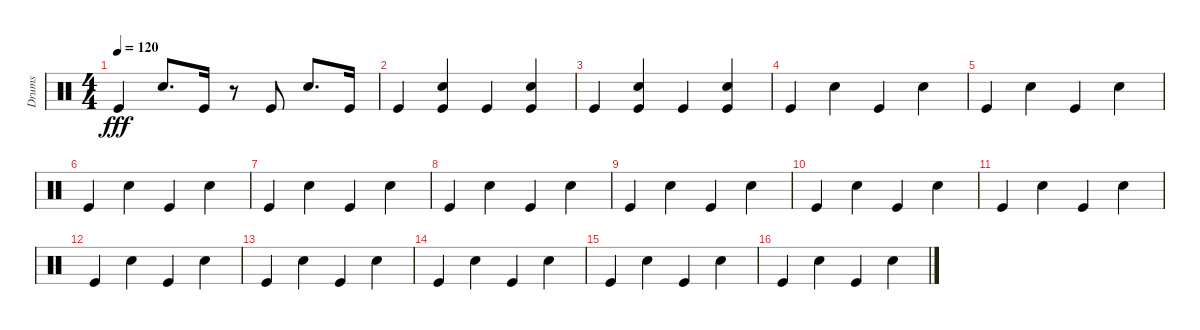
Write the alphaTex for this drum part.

\track ("Drums" "Drums") {instrument percussion}
\staff {score}
\articulation defaults
\ts (4 4)
\tempo 120
\clef neutral
\ks c "Kick (hit)".4{dy fff} "Snare (hit) 2".8{d} "Kick (hit)".16
r.8 "Kick (hit)".8 "Snare (hit) 2".8{d} "Kick (hit)".16 |
"Kick (hit)".4 ("Snare (hit) 2" "Kick (hit)").4 "Kick (hit)".4 ("Snare (hit) 2" "Kick (hit)").4 |
"Kick (hit)".4 ("Snare (hit) 2" "Kick (hit)").4 "Kick (hit)".4 ("Snare (hit) 2" "Kick (hit)").4 |
"Kick (hit)".4 "Snare (hit) 2".4 "Kick (hit)".4 "Snare (hit) 2".4 |
"Kick (hit)".4 "Snare (hit) 2".4 "Kick (hit)".4 "Snare (hit) 2".4 |
"Kick (hit)".4 "Snare (hit) 2".4 "Kick (hit)".4 "Snare (hit) 2".4 |
"Kick (hit)".4 "Snare (hit) 2".4 "Kick (hit)".4 "Snare (hit) 2".4 |
"Kick (hit)".4 "Snare (hit) 2".4 "Kick (hit)".4 "Snare (hit) 2".4 |
"Kick (hit)".4 "Snare (hit) 2".4 "Kick (hit)".4 "Snare (hit) 2".4 |
"Kick (hit)".4 "Snare (hit) 2".4 "Kick (hit)".4 "Snare (hit) 2".4 |
"Kick (hit)".4 "Snare (hit) 2".4 "Kick (hit)".4 "Snare (hit) 2".4 |
"Kick (hit)".4 "Snare (hit) 2".4 "Kick (hit)".4 "Snare (hit) 2".4 |
"Kick (hit)".4 "Snare (hit) 2".4 "Kick (hit)".4 "Snare (hit) 2".4 |
"Kick (hit)".4 "Snare (hit) 2".4 "Kick (hit)".4 "Snare (hit) 2".4 |
"Kick (hit)".4 "Snare (hit) 2".4 "Kick (hit)".4 "Snare (hit) 2".4 |
"Kick (hit)".4 "Snare (hit) 2".4 "Kick (hit)".4 "Snare (hit) 2".4
